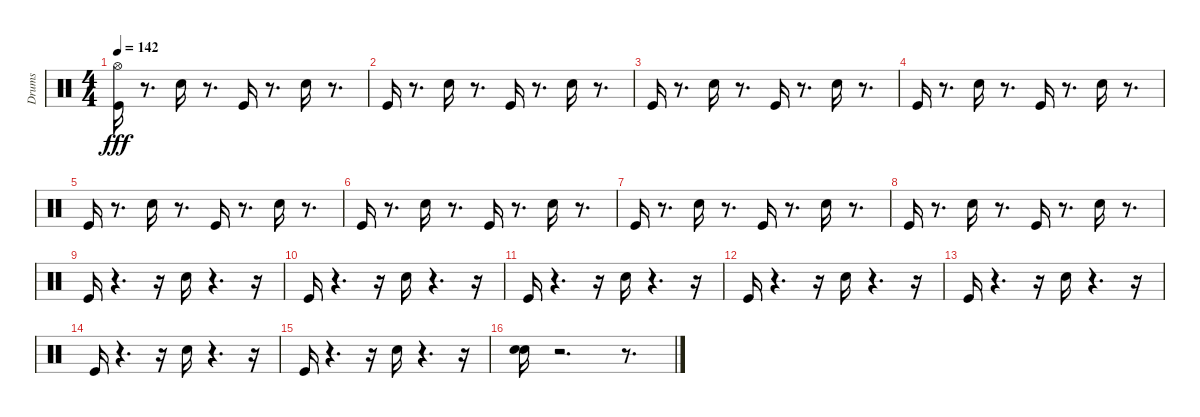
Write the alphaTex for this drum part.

\track ("Drums" "Drums") {instrument percussion}
\staff {score}
\articulation defaults
\ts (4 4)
\tempo 142
\clef neutral
\ks c
("Kick (hit)" "Hi-Hat (open)").16{dy fff} r.8{d} "Snare (hit) 2".16 r.8{d} "Kick (hit)".16 r.8{d} "Snare (hit) 2".16 r.8{d} |
"Kick (hit)".16 r.8{d} "Snare (hit) 2".16 r.8{d} "Kick (hit)".16 r.8{d} "Snare (hit) 2".16 r.8{d} |
"Kick (hit)".16 r.8{d} "Snare (hit) 2".16 r.8{d} "Kick (hit)".16 r.8{d} "Snare (hit) 2".16 r.8{d} |
"Kick (hit)".16 r.8{d} "Snare (hit) 2".16 r.8{d} "Kick (hit)".16 r.8{d} "Snare (hit) 2".16 r.8{d} |
"Kick (hit)".16 r.8{d} "Snare (hit) 2".16 r.8{d} "Kick (hit)".16 r.8{d} "Snare (hit) 2".16 r.8{d} |
"Kick (hit)".16 r.8{d} "Snare (hit) 2".16 r.8{d} "Kick (hit)".16 r.8{d} "Snare (hit) 2".16 r.8{d} |
"Kick (hit)".16 r.8{d} "Snare (hit) 2".16 r.8{d} "Kick (hit)".16 r.8{d} "Snare (hit) 2".16 r.8{d} |
"Kick (hit)".16 r.8{d} "Snare (hit) 2".16 r.8{d} "Kick (hit)".16 r.8{d} "Snare (hit) 2".16 r.8{d} |
"Kick (hit)".16 r.4{d} r.16 "Snare (hit) 2".16 r.4{d} r.16 |
"Kick (hit)".16 r.4{d} r.16 "Snare (hit) 2".16 r.4{d} r.16 |
"Kick (hit)".16 r.4{d} r.16 "Snare (hit) 2".16 r.4{d} r.16 |
"Kick (hit)".16 r.4{d} r.16 "Snare (hit) 2".16 r.4{d} r.16 |
"Kick (hit)".16 r.4{d} r.16 "Snare (hit) 2".16 r.4{d} r.16 |
"Kick (hit)".16 r.4{d} r.16 "Snare (hit) 2".16 r.4{d} r.16 |
"Kick (hit)".16 r.4{d} r.16 "Snare (hit) 2".16 r.4{d} r.16 |
("Snare (hit) 2" "Electric Snare (hit)").16 r.2{d} r.8{d}
